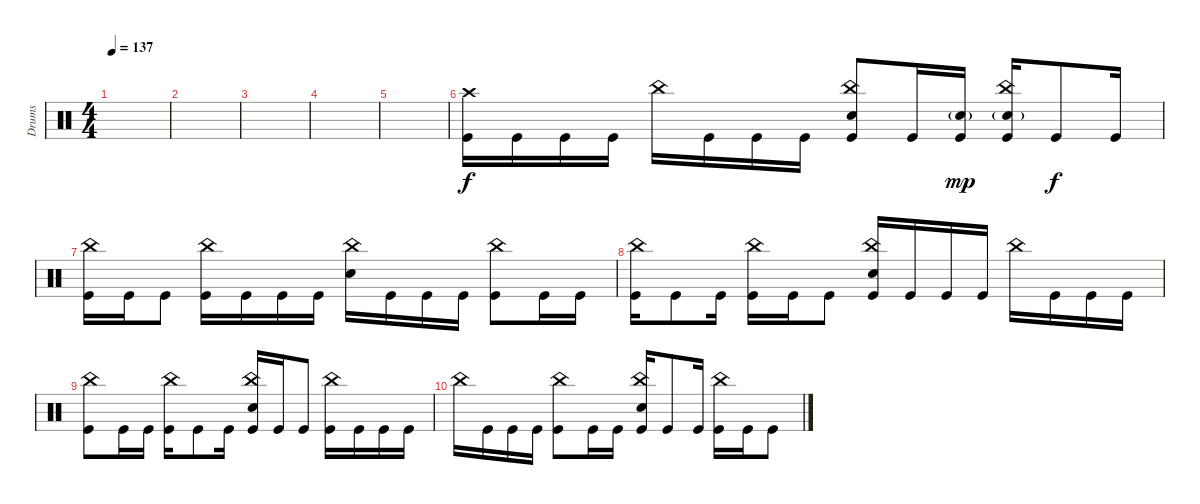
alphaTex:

\track ("Drums" "Drums") {instrument percussion}
\staff
\articulation defaults
\ts (4 4)
\tempo 137
\clef neutral
\ks c
|
|
|
|
|
("Crash high (hit)" "Kick (hit)").16 "Kick (hit)".16 "Kick (hit)".16 "Kick (hit)".16 "China (hit)".16 "Kick (hit)".16 "Kick (hit)".16 "Kick (hit)".16 ("China (hit)" "Electric Snare (hit)" "Kick (hit)").8 "Kick (hit)".16 ("Electric Snare (hit)"{g} "Kick (hit)").16{dy mp} ("China (hit)" "Electric Snare (hit)"{g} "Kick (hit)").16 "Kick (hit)".8{dy f} "Kick (hit)".16 |
("China (hit)" "Kick (hit)").16 "Kick (hit)".16 "Kick (hit)".8 ("China (hit)" "Kick (hit)").16 "Kick (hit)".16 "Kick (hit)".16 "Kick (hit)".16 ("China (hit)" "Electric Snare (hit)").16 "Kick (hit)".16 "Kick (hit)".16 "Kick (hit)".16 ("China (hit)" "Kick (hit)").8 "Kick (hit)".16 "Kick (hit)".16 |
("China (hit)" "Kick (hit)").16 "Kick (hit)".8 "Kick (hit)".16 ("China (hit)" "Kick (hit)").16 "Kick (hit)".16 "Kick (hit)".8 ("China (hit)" "Electric Snare (hit)" "Kick (hit)").16 "Kick (hit)".16 "Kick (hit)".16 "Kick (hit)".16 "China (hit)".16 "Kick (hit)".16 "Kick (hit)".16 "Kick (hit)".16 |
("China (hit)" "Kick (hit)").8 "Kick (hit)".16 "Kick (hit)".16 ("China (hit)" "Kick (hit)").16 "Kick (hit)".8 "Kick (hit)".16 ("China (hit)" "Electric Snare (hit)" "Kick (hit)").16 "Kick (hit)".16 "Kick (hit)".8 ("China (hit)" "Kick (hit)").16 "Kick (hit)".16 "Kick (hit)".16 "Kick (hit)".16 |
"China (hit)".16 "Kick (hit)".16 "Kick (hit)".16 "Kick (hit)".16 ("China (hit)" "Kick (hit)").8 "Kick (hit)".16 "Kick (hit)".16 ("China (hit)" "Electric Snare (hit)" "Kick (hit)").16 "Kick (hit)".8 "Kick (hit)".16 ("China (hit)" "Kick (hit)").16 "Kick (hit)".16 "Kick (hit)".8
